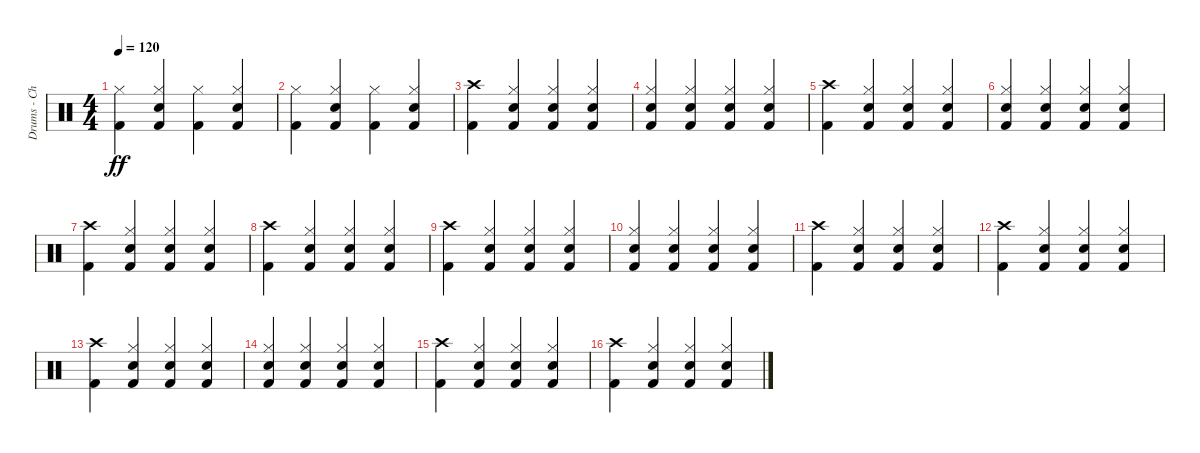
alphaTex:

\track ("Drums - Chris Frantz" "Drums - Ch") {instrument percussion}
\staff {score}
\articulation defaults
\ts (4 4)
\tempo 120
\clef neutral
\ks c
("Kick (hit) 2" "Hi-Hat (closed)").4{dy ff} ("Kick (hit) 2" "Snare (hit) 2" "Hi-Hat (closed)").4 ("Kick (hit) 2" "Hi-Hat (closed)").4 ("Kick (hit) 2" "Snare (hit) 2" "Hi-Hat (closed)").4 |
("Kick (hit) 2" "Hi-Hat (closed)").4 ("Kick (hit) 2" "Snare (hit) 2" "Hi-Hat (closed)").4 ("Kick (hit) 2" "Hi-Hat (closed)").4 ("Kick (hit) 2" "Snare (hit) 2" "Hi-Hat (closed)").4 |
("Kick (hit) 2" "Crash high (hit)").4 ("Kick (hit) 2" "Snare (hit) 2" "Hi-Hat (closed)").4 ("Kick (hit) 2" "Snare (hit) 2" "Hi-Hat (closed)").4 ("Kick (hit) 2" "Snare (hit) 2" "Hi-Hat (closed)").4 |
("Kick (hit) 2" "Snare (hit) 2" "Hi-Hat (closed)").4 ("Kick (hit) 2" "Snare (hit) 2" "Hi-Hat (closed)").4 ("Kick (hit) 2" "Snare (hit) 2" "Hi-Hat (closed)").4 ("Kick (hit) 2" "Snare (hit) 2" "Hi-Hat (closed)").4 |
("Kick (hit) 2" "Crash high (hit)").4 ("Kick (hit) 2" "Snare (hit) 2" "Hi-Hat (closed)").4 ("Kick (hit) 2" "Snare (hit) 2" "Hi-Hat (closed)").4 ("Kick (hit) 2" "Snare (hit) 2" "Hi-Hat (closed)").4 |
("Kick (hit) 2" "Snare (hit) 2" "Hi-Hat (closed)").4 ("Kick (hit) 2" "Snare (hit) 2" "Hi-Hat (closed)").4 ("Kick (hit) 2" "Snare (hit) 2" "Hi-Hat (closed)").4 ("Kick (hit) 2" "Snare (hit) 2" "Hi-Hat (closed)").4 |
("Kick (hit) 2" "Crash high (hit)").4 ("Kick (hit) 2" "Snare (hit) 2" "Hi-Hat (closed)").4 ("Kick (hit) 2" "Snare (hit) 2" "Hi-Hat (closed)").4 ("Kick (hit) 2" "Snare (hit) 2" "Hi-Hat (closed)").4 |
("Kick (hit) 2" "Crash high (hit)").4 ("Kick (hit) 2" "Snare (hit) 2" "Hi-Hat (closed)").4 ("Kick (hit) 2" "Snare (hit) 2" "Hi-Hat (closed)").4 ("Kick (hit) 2" "Snare (hit) 2" "Hi-Hat (closed)").4 |
("Kick (hit) 2" "Crash high (hit)").4 ("Kick (hit) 2" "Snare (hit) 2" "Hi-Hat (closed)").4 ("Kick (hit) 2" "Snare (hit) 2" "Hi-Hat (closed)").4 ("Kick (hit) 2" "Snare (hit) 2" "Hi-Hat (closed)").4 |
("Kick (hit) 2" "Snare (hit) 2" "Hi-Hat (closed)").4 ("Kick (hit) 2" "Snare (hit) 2" "Hi-Hat (closed)").4 ("Kick (hit) 2" "Snare (hit) 2" "Hi-Hat (closed)").4 ("Kick (hit) 2" "Snare (hit) 2" "Hi-Hat (closed)").4 |
("Kick (hit) 2" "Crash high (hit)").4 ("Kick (hit) 2" "Snare (hit) 2" "Hi-Hat (closed)").4 ("Kick (hit) 2" "Snare (hit) 2" "Hi-Hat (closed)").4 ("Kick (hit) 2" "Snare (hit) 2" "Hi-Hat (closed)").4 |
("Kick (hit) 2" "Crash high (hit)").4 ("Kick (hit) 2" "Snare (hit) 2" "Hi-Hat (closed)").4 ("Kick (hit) 2" "Snare (hit) 2" "Hi-Hat (closed)").4 ("Kick (hit) 2" "Snare (hit) 2" "Hi-Hat (closed)").4 |
("Kick (hit) 2" "Crash high (hit)").4 ("Kick (hit) 2" "Snare (hit) 2" "Hi-Hat (closed)").4 ("Kick (hit) 2" "Snare (hit) 2" "Hi-Hat (closed)").4 ("Kick (hit) 2" "Snare (hit) 2" "Hi-Hat (closed)").4 |
("Kick (hit) 2" "Snare (hit) 2" "Hi-Hat (closed)").4 ("Kick (hit) 2" "Snare (hit) 2" "Hi-Hat (closed)").4 ("Kick (hit) 2" "Snare (hit) 2" "Hi-Hat (closed)").4 ("Kick (hit) 2" "Snare (hit) 2" "Hi-Hat (closed)").4 |
("Kick (hit) 2" "Crash high (hit)").4 ("Kick (hit) 2" "Snare (hit) 2" "Hi-Hat (closed)").4 ("Kick (hit) 2" "Snare (hit) 2" "Hi-Hat (closed)").4 ("Kick (hit) 2" "Snare (hit) 2" "Hi-Hat (closed)").4 |
("Kick (hit) 2" "Crash high (hit)").4 ("Kick (hit) 2" "Snare (hit) 2" "Hi-Hat (closed)").4 ("Kick (hit) 2" "Snare (hit) 2" "Hi-Hat (closed)").4 ("Kick (hit) 2" "Snare (hit) 2" "Hi-Hat (closed)").4
